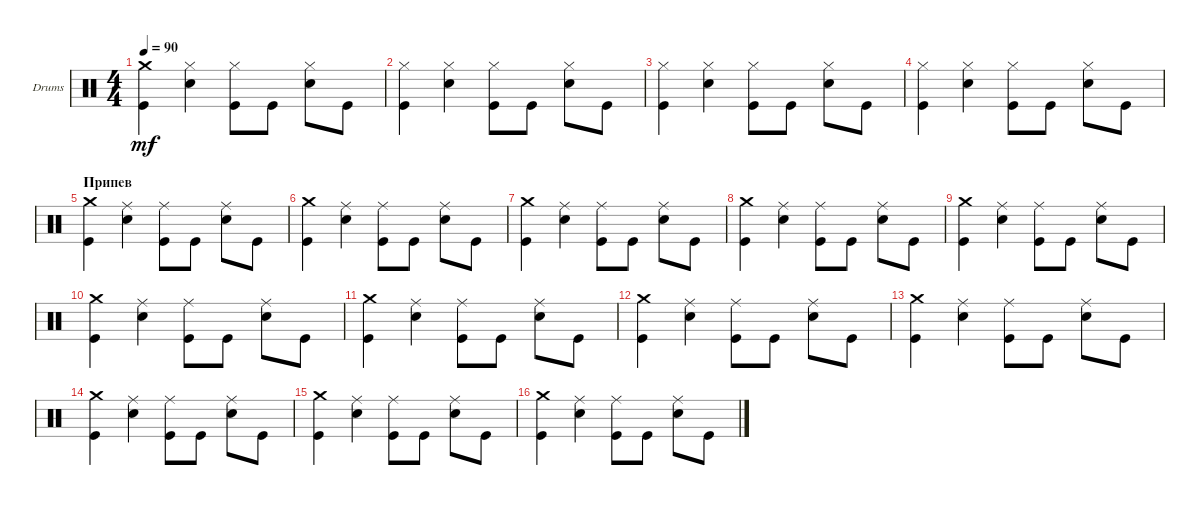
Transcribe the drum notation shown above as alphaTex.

\bracketExtendMode groupsimilarinstruments
\firstSystemTrackNameOrientation horizontal
\otherSystemsTrackNameOrientation horizontal
\track ("Drumkit" "Drums") {instrument percussion}
\staff {score}
\articulation defaults
\ts (4 4)
\tempo 90
\clef neutral
\ks c
("Kick (hit)" "Crash medium (hit)").4{dy mf} ("Snare (hit) 2" "Hi-Hat (closed)").4 ("Kick (hit)" "Hi-Hat (closed)").8 "Kick (hit)".8 ("Snare (hit) 2" "Hi-Hat (closed)").8 "Kick (hit)".8 |
("Kick (hit)" "Hi-Hat (closed)").4 ("Snare (hit) 2" "Hi-Hat (closed)").4 ("Kick (hit)" "Hi-Hat (closed)").8 "Kick (hit)".8 ("Snare (hit) 2" "Hi-Hat (closed)").8 "Kick (hit)".8 |
("Kick (hit)" "Hi-Hat (closed)").4 ("Snare (hit) 2" "Hi-Hat (closed)").4 ("Kick (hit)" "Hi-Hat (closed)").8 "Kick (hit)".8 ("Snare (hit) 2" "Hi-Hat (closed)").8 "Kick (hit)".8 |
("Kick (hit)" "Hi-Hat (closed)").4 ("Snare (hit) 2" "Hi-Hat (closed)").4 ("Kick (hit)" "Hi-Hat (closed)").8 "Kick (hit)".8 ("Snare (hit) 2" "Hi-Hat (closed)").8 "Kick (hit)".8 |
\section ("" "Припев")
("Kick (hit)" "Crash medium (hit)").4 ("Snare (hit) 2" "Ride (middle)").4 ("Kick (hit)" "Ride (middle)").8 "Kick (hit)".8 ("Snare (hit) 2" "Ride (middle)").8 "Kick (hit)".8 |
("Kick (hit)" "Crash medium (hit)").4 ("Snare (hit) 2" "Ride (middle)").4 ("Kick (hit)" "Ride (middle)").8 "Kick (hit)".8 ("Snare (hit) 2" "Ride (middle)").8 "Kick (hit)".8 |
("Kick (hit)" "Crash medium (hit)").4 ("Snare (hit) 2" "Ride (middle)").4 ("Kick (hit)" "Ride (middle)").8 "Kick (hit)".8 ("Snare (hit) 2" "Ride (middle)").8 "Kick (hit)".8 |
("Kick (hit)" "Crash medium (hit)").4 ("Snare (hit) 2" "Ride (middle)").4 ("Kick (hit)" "Ride (middle)").8 "Kick (hit)".8 ("Snare (hit) 2" "Ride (middle)").8 "Kick (hit)".8 |
("Kick (hit)" "Crash medium (hit)").4 ("Snare (hit) 2" "Ride (middle)").4 ("Kick (hit)" "Ride (middle)").8 "Kick (hit)".8 ("Snare (hit) 2" "Ride (middle)").8 "Kick (hit)".8 |
("Kick (hit)" "Crash medium (hit)").4 ("Snare (hit) 2" "Ride (middle)").4 ("Kick (hit)" "Ride (middle)").8 "Kick (hit)".8 ("Snare (hit) 2" "Ride (middle)").8 "Kick (hit)".8 |
("Kick (hit)" "Crash medium (hit)").4 ("Snare (hit) 2" "Ride (middle)").4 ("Kick (hit)" "Ride (middle)").8 "Kick (hit)".8 ("Snare (hit) 2" "Ride (middle)").8 "Kick (hit)".8 |
("Kick (hit)" "Crash medium (hit)").4 ("Snare (hit) 2" "Ride (middle)").4 ("Kick (hit)" "Ride (middle)").8 "Kick (hit)".8 ("Snare (hit) 2" "Ride (middle)").8 "Kick (hit)".8 |
("Kick (hit)" "Crash medium (hit)").4 ("Snare (hit) 2" "Ride (middle)").4 ("Kick (hit)" "Ride (middle)").8 "Kick (hit)".8 ("Snare (hit) 2" "Ride (middle)").8 "Kick (hit)".8 |
("Kick (hit)" "Crash medium (hit)").4 ("Snare (hit) 2" "Ride (middle)").4 ("Kick (hit)" "Ride (middle)").8 "Kick (hit)".8 ("Snare (hit) 2" "Ride (middle)").8 "Kick (hit)".8 |
("Kick (hit)" "Crash medium (hit)").4 ("Snare (hit) 2" "Ride (middle)").4 ("Kick (hit)" "Ride (middle)").8 "Kick (hit)".8 ("Snare (hit) 2" "Ride (middle)").8 "Kick (hit)".8 |
("Kick (hit)" "Crash medium (hit)").4 ("Snare (hit) 2" "Ride (middle)").4 ("Kick (hit)" "Ride (middle)").8 "Kick (hit)".8 ("Snare (hit) 2" "Ride (middle)").8 "Kick (hit)".8
